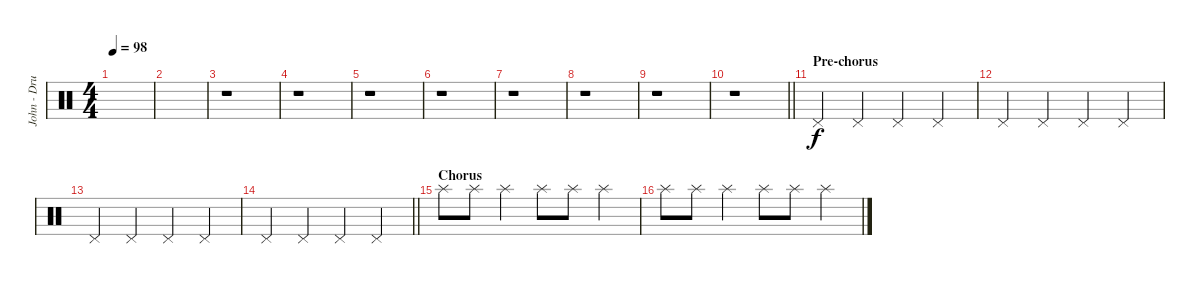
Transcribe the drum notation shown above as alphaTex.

\track ("John - Drums" "John - Dru") {instrument percussion}
\staff {score}
\articulation defaults
\ts (4 4)
\tempo 98
\clef neutral
\ks c
|
|
r.1 |
r.1 |
r.1 |
r.1 |
r.1 |
r.1 |
r.1 |
\barLineRight lightlight
r.1 |
\section ("" "Pre-chorus")
"Pedal Hi-Hat (hit)".4 "Pedal Hi-Hat (hit)".4 "Pedal Hi-Hat (hit)".4 "Pedal Hi-Hat (hit)".4 |
"Pedal Hi-Hat (hit)".4 "Pedal Hi-Hat (hit)".4 "Pedal Hi-Hat (hit)".4 "Pedal Hi-Hat (hit)".4 |
"Pedal Hi-Hat (hit)".4 "Pedal Hi-Hat (hit)".4 "Pedal Hi-Hat (hit)".4 "Pedal Hi-Hat (hit)".4 |
\barLineRight lightlight "Pedal Hi-Hat (hit)".4 "Pedal Hi-Hat (hit)".4 "Pedal Hi-Hat (hit)".4 "Pedal Hi-Hat (hit)".4
|
\section ("" "Chorus")
"Splash (hit)".8 "Splash (hit)".8 "Splash (hit)".4 "Splash (hit)".8 "Splash (hit)".8 "Splash (hit)".4 |
"Splash (hit)".8 "Splash (hit)".8 "Splash (hit)".4 "Splash (hit)".8 "Splash (hit)".8 "Splash (hit)".4
